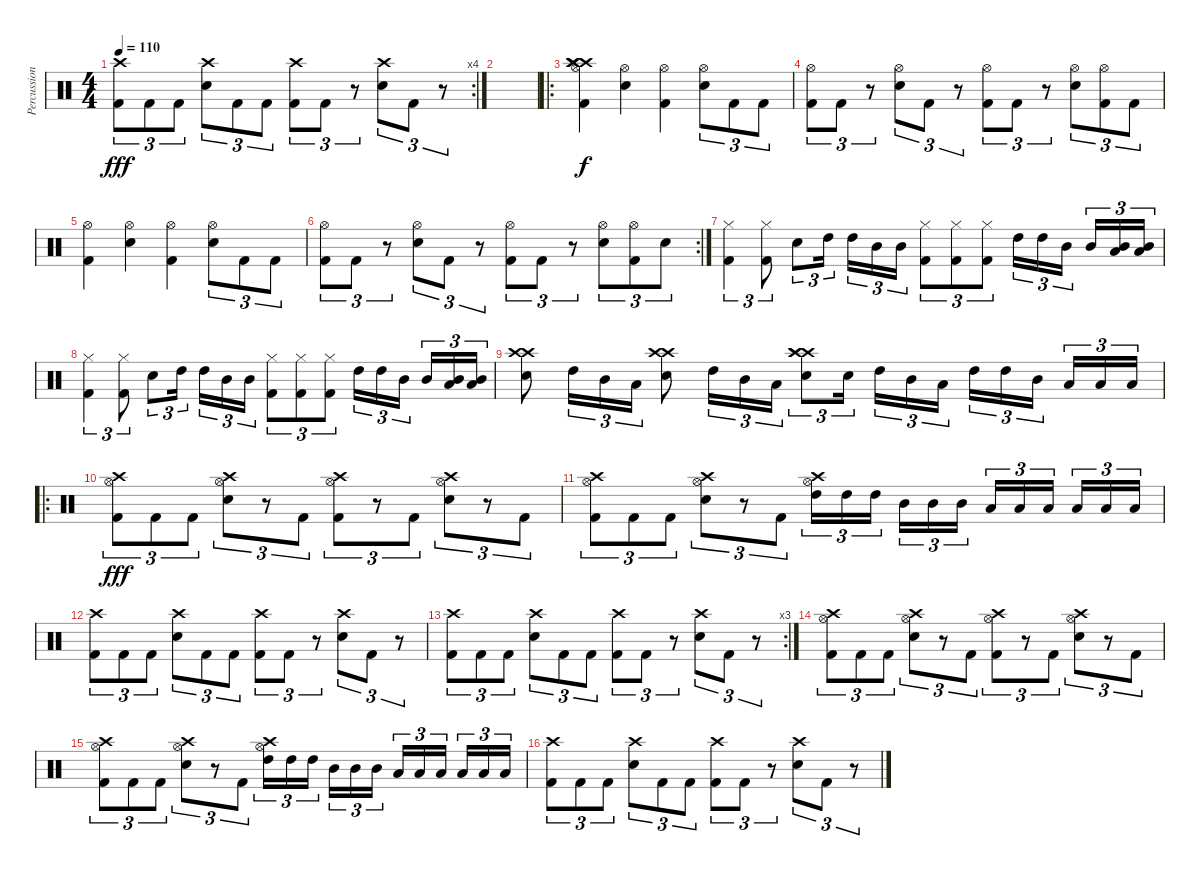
\track ("Percussion" "Percussion") {instrument percussion}
\staff {score}
\articulation defaults
\rc 4
\ts (4 4)
\tempo 110
\clef neutral
\ks c
("Crash high (hit)" "Kick (hit) 2").8{tu (3 2) dy fff} "Kick (hit) 2".8{tu (3 2)} "Kick (hit) 2".8{tu (3 2)} ("Crash high (hit)" "Snare (hit) 2").8{tu (3 2)} "Kick (hit) 2".8{tu (3 2)} "Kick (hit) 2".8{tu (3 2)} ("Crash high (hit)" "Kick (hit) 2").8{tu (3 2)} "Kick (hit) 2".8{tu (3 2)} r.8{tu (3 2)} ("Crash high (hit)" "Snare (hit) 2").8{tu (3 2)} "Kick (hit) 2".8{tu (3 2)} r.8{tu (3 2)} |
|
\ro
("Crash high (hit)" "Crash high (hit)" "Crash high (hit)" "Crash high (hit)" "Hi-Hat (open)" "Kick (hit) 2").4{dy f} ("Hi-Hat (open)" "Snare (hit) 2").4 ("Hi-Hat (open)" "Kick (hit) 2").4 ("Hi-Hat (open)" "Snare (hit) 2").8{tu (3 2)} "Kick (hit) 2".8{tu (3 2)} "Kick (hit) 2".8{tu (3 2)} |
("Hi-Hat (open)" "Kick (hit) 2").8{tu (3 2)} "Kick (hit) 2".8{tu (3 2)} r.8{tu (3 2)} ("Hi-Hat (open)" "Snare (hit) 2").8{tu (3 2)} "Kick (hit) 2".8{tu (3 2)} r.8{tu (3 2)} ("Hi-Hat (open)" "Kick (hit) 2").8{tu (3 2)} "Kick (hit) 2".8{tu (3 2)} r.8{tu (3 2)} ("Hi-Hat (open)" "Snare (hit) 2").8{tu (3 2)} ("Hi-Hat (open)" "Kick (hit) 2").8{tu (3 2)} "Kick (hit) 2".8{tu (3 2)} |
("Hi-Hat (open)" "Kick (hit) 2").4 ("Hi-Hat (open)" "Snare (hit) 2").4 ("Hi-Hat (open)" "Kick (hit) 2").4 ("Hi-Hat (open)" "Snare (hit) 2").8{tu (3 2)} "Kick (hit) 2".8{tu (3 2)} "Kick (hit) 2".8{tu (3 2)} |
\rc 2
("Hi-Hat (open)" "Kick (hit) 2").8{tu (3 2)} "Kick (hit) 2".8{tu (3 2)} r.8{tu (3 2)} ("Hi-Hat (open)" "Snare (hit) 2").8{tu (3 2)} "Kick (hit) 2".8{tu (3 2)} r.8{tu (3 2)} ("Hi-Hat (open)" "Kick (hit) 2").8{tu (3 2)} "Kick (hit) 2".8{tu (3 2)} r.8{tu (3 2)} ("Hi-Hat (open)" "Snare (hit) 2").8{tu (3 2)} ("Hi-Hat (open)" "Kick (hit) 2").8{tu (3 2)} "Snare (hit) 2".8{tu (3 2)} |
("Hi-Hat (closed)" "Kick (hit) 2").4{tu (3 2)} ("Hi-Hat (closed)" "Kick (hit) 2").8{tu (3 2)} "Snare (hit) 2".8{tu (3 2)} "High Tom (hit)".16{tu (3 2)} "High Tom (hit)".16{tu (3 2)} "Mid Tom (hit)".16{tu (3 2)} "Mid Tom (hit)".16{tu (3 2)} ("Hi-Hat (closed)" "Kick (hit) 2").8{tu (3 2)} ("Hi-Hat (closed)" "Kick (hit) 2").8{tu (3 2)} ("Hi-Hat (closed)" "Kick (hit) 2").8{tu (3 2)} "High Tom (hit)".16{tu (3 2)} "High Tom (hit)".16{tu (3 2)} "Mid Tom (hit)".16{tu (3 2)} "Mid Tom (hit)".16{tu (3 2)} ("Low Tom (hit)" "Mid Tom (hit)").16{tu (3 2)} ("Low Tom (hit)" "Mid Tom (hit)").16{tu (3 2)} |
("Hi-Hat (closed)" "Kick (hit) 2").4{tu (3 2)} ("Hi-Hat (closed)" "Kick (hit) 2").8{tu (3 2)} "Snare (hit) 2".8{tu (3 2)} "High Tom (hit)".16{tu (3 2)} "High Tom (hit)".16{tu (3 2)} "Mid Tom (hit)".16{tu (3 2)} "Mid Tom (hit)".16{tu (3 2)} ("Hi-Hat (closed)" "Kick (hit) 2").8{tu (3 2)} ("Hi-Hat (closed)" "Kick (hit) 2").8{tu (3 2)} ("Hi-Hat (closed)" "Kick (hit) 2").8{tu (3 2)} "High Tom (hit)".16{tu (3 2)} "High Tom (hit)".16{tu (3 2)} "Mid Tom (hit)".16{tu (3 2)} "Mid Tom (hit)".16{tu (3 2)} ("Low Tom (hit)" "Mid Tom (hit)").16{tu (3 2)} ("Low Tom (hit)" "Mid Tom (hit)").16{tu (3 2)} |
("Crash high (hit)" "Crash high (hit)" "Snare (hit) 2").8 "High Tom (hit)".16{tu (3 2)} "Mid Tom (hit)".16{tu (3 2)} "Low Tom (hit)".16{tu (3 2)} ("Crash high (hit)" "Crash high (hit)" "Snare (hit) 2").8 "High Tom (hit)".16{tu (3 2)} "Mid Tom (hit)".16{tu (3 2)} "Low Tom (hit)".16{tu (3 2)} ("Crash high (hit)" "Crash high (hit)" "Crash high (hit)" "Snare (hit) 2").8{tu (3 2)} "Snare (hit) 2".16{tu (3 2)} "High Tom (hit)".16{tu (3 2)} "Mid Tom (hit)".16{tu (3 2)} "Low Tom (hit)".16{tu (3 2)} "High Tom (hit)".16{tu (3 2)} "High Tom (hit)".16{tu (3 2)} "Mid Tom (hit)".16{tu (3 2)} "Low Tom (hit)".16{tu (3 2)} "Low Tom (hit)".16{tu (3 2)} "Low Tom (hit)".16{tu (3 2)} |
\ro
("Crash high (hit)" "Hi-Hat (open)" "Kick (hit) 2").8{tu (3 2) dy fff volume 16} "Kick (hit) 2".8{tu (3 2)} "Kick (hit) 2".8{tu (3 2)} ("Crash high (hit)" "Hi-Hat (open)" "Snare (hit) 2").8{tu (3 2)} r.8{tu (3 2)} "Kick (hit) 2".8{tu (3 2)} ("Crash high (hit)" "Hi-Hat (open)" "Kick (hit) 2").8{tu (3 2)} r.8{tu (3 2)} "Kick (hit) 2".8{tu (3 2)} ("Crash high (hit)" "Hi-Hat (open)" "Snare (hit) 2").8{tu (3 2)} r.8{tu (3 2)} "Kick (hit) 2".8{tu (3 2)} |
("Crash high (hit)" "Hi-Hat (open)" "Kick (hit) 2").8{tu (3 2)} "Kick (hit) 2".8{tu (3 2)} "Kick (hit) 2".8{tu (3 2)} ("Crash high (hit)" "Hi-Hat (open)" "Snare (hit) 2").8{tu (3 2)} r.8{tu (3 2)} "Kick (hit) 2".8{tu (3 2)} ("Crash high (hit)" "Hi-Hat (open)" "High Tom (hit)").16{tu (3 2)} "High Tom (hit)".16{tu (3 2)} "High Tom (hit)".16{tu (3 2)} "Mid Tom (hit)".16{tu (3 2)} "Mid Tom (hit)".16{tu (3 2)} "Mid Tom (hit)".16{tu (3 2)} "Low Tom (hit)".16{tu (3 2)} "Low Tom (hit)".16{tu (3 2)} "Low Tom (hit)".16{tu (3 2)} "Low Tom (hit)".16{tu (3 2)} "Low Tom (hit)".16{tu (3 2)} "Low Tom (hit)".16{tu (3 2)} |
("Crash high (hit)" "Kick (hit) 2").8{tu (3 2)} "Kick (hit) 2".8{tu (3 2)} "Kick (hit) 2".8{tu (3 2)} ("Crash high (hit)" "Snare (hit) 2").8{tu (3 2)} "Kick (hit) 2".8{tu (3 2)} "Kick (hit) 2".8{tu (3 2)} ("Crash high (hit)" "Kick (hit) 2").8{tu (3 2)} "Kick (hit) 2".8{tu (3 2)} r.8{tu (3 2)} ("Crash high (hit)" "Snare (hit) 2").8{tu (3 2)} "Kick (hit) 2".8{tu (3 2)} r.8{tu (3 2)} |
\rc 3
("Crash high (hit)" "Kick (hit) 2").8{tu (3 2)} "Kick (hit) 2".8{tu (3 2)} "Kick (hit) 2".8{tu (3 2)} ("Crash high (hit)" "Snare (hit) 2").8{tu (3 2)} "Kick (hit) 2".8{tu (3 2)} "Kick (hit) 2".8{tu (3 2)} ("Crash high (hit)" "Kick (hit) 2").8{tu (3 2)} "Kick (hit) 2".8{tu (3 2)} r.8{tu (3 2)} ("Crash high (hit)" "Snare (hit) 2").8{tu (3 2)} "Kick (hit) 2".8{tu (3 2)} r.8{tu (3 2)} |
("Crash high (hit)" "Hi-Hat (open)" "Kick (hit) 2").8{tu (3 2) volume 16} "Kick (hit) 2".8{tu (3 2)} "Kick (hit) 2".8{tu (3 2)} ("Crash high (hit)" "Hi-Hat (open)" "Snare (hit) 2").8{tu (3 2)} r.8{tu (3 2)} "Kick (hit) 2".8{tu (3 2)} ("Crash high (hit)" "Hi-Hat (open)" "Kick (hit) 2").8{tu (3 2)} r.8{tu (3 2)} "Kick (hit) 2".8{tu (3 2)} ("Crash high (hit)" "Hi-Hat (open)" "Snare (hit) 2").8{tu (3 2)} r.8{tu (3 2)} "Kick (hit) 2".8{tu (3 2)} |
("Crash high (hit)" "Hi-Hat (open)" "Kick (hit) 2").8{tu (3 2)} "Kick (hit) 2".8{tu (3 2)} "Kick (hit) 2".8{tu (3 2)} ("Crash high (hit)" "Hi-Hat (open)" "Snare (hit) 2").8{tu (3 2)} r.8{tu (3 2)} "Kick (hit) 2".8{tu (3 2)} ("Crash high (hit)" "Hi-Hat (open)" "High Tom (hit)").16{tu (3 2)} "High Tom (hit)".16{tu (3 2)} "High Tom (hit)".16{tu (3 2)} "Mid Tom (hit)".16{tu (3 2)} "Mid Tom (hit)".16{tu (3 2)} "Mid Tom (hit)".16{tu (3 2)} "Low Tom (hit)".16{tu (3 2)} "Low Tom (hit)".16{tu (3 2)} "Low Tom (hit)".16{tu (3 2)} "Low Tom (hit)".16{tu (3 2)} "Low Tom (hit)".16{tu (3 2)} "Low Tom (hit)".16{tu (3 2)} |
("Crash high (hit)" "Kick (hit) 2").8{tu (3 2) volume 3} "Kick (hit) 2".8{tu (3 2)} "Kick (hit) 2".8{tu (3 2)} ("Crash high (hit)" "Snare (hit) 2").8{tu (3 2)} "Kick (hit) 2".8{tu (3 2)} "Kick (hit) 2".8{tu (3 2)} ("Crash high (hit)" "Kick (hit) 2").8{tu (3 2)} "Kick (hit) 2".8{tu (3 2)} r.8{tu (3 2)} ("Crash high (hit)" "Snare (hit) 2").8{tu (3 2)} "Kick (hit) 2".8{tu (3 2)} r.8{tu (3 2)}
